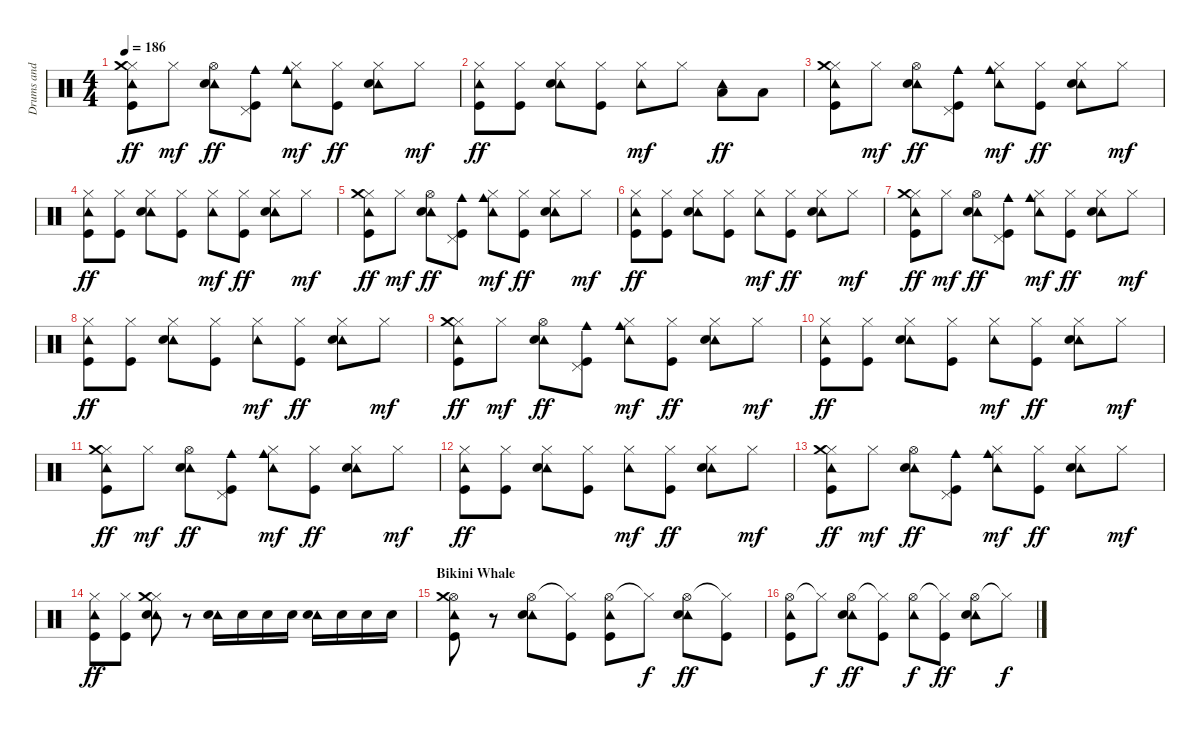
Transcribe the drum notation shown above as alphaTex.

\track ("Drums and Percs" "Drums and ") {instrument percussion}
\staff {score}
\articulation defaults
\ts (4 4)
\tempo 186
\clef neutral
\ks c
("Hi-Hat (closed)" "Tambourine (hit)" "Crash medium (hit)" "Kick (hit)").8{dy ff} "Hi-Hat (closed)".8{dy mf} ("Hi-Hat (open)" "Tambourine (hit)" "Electric Snare (hit)").8{dy ff} ("Pedal Hi-Hat (hit)" "Cowbell medium (hit)" "Kick (hit)").8 ("Hi-Hat (closed)" "Tambourine (hit)" "Cowbell medium (hit)").8{dy mf} ("Hi-Hat (closed)" "Kick (hit)").8{dy ff} ("Hi-Hat (closed)" "Tambourine (hit)" "Electric Snare (hit)").8 "Hi-Hat (closed)".8{dy mf} |
("Hi-Hat (closed)" "Tambourine (hit)" "Kick (hit)").8{dy ff} ("Hi-Hat (closed)" "Kick (hit)").8 ("Hi-Hat (closed)" "Tambourine (hit)" "Electric Snare (hit)").8 ("Hi-Hat (closed)" "Kick (hit)").8 ("Hi-Hat (closed)" "Tambourine (hit)").8{dy mf} "Hi-Hat (closed)".8 ("Tambourine (hit)" "Low Tom (hit)").8{dy ff} "Low Tom (hit)".8 |
("Hi-Hat (closed)" "Tambourine (hit)" "Crash medium (hit)" "Kick (hit)").8 "Hi-Hat (closed)".8{dy mf} ("Hi-Hat (open)" "Tambourine (hit)" "Electric Snare (hit)").8{dy ff} ("Pedal Hi-Hat (hit)" "Cowbell medium (hit)" "Kick (hit)").8 ("Hi-Hat (closed)" "Tambourine (hit)" "Cowbell medium (hit)").8{dy mf} ("Hi-Hat (closed)" "Kick (hit)").8{dy ff} ("Hi-Hat (closed)" "Tambourine (hit)" "Electric Snare (hit)").8 "Hi-Hat (closed)".8{dy mf} |
("Hi-Hat (closed)" "Tambourine (hit)" "Kick (hit)").8{dy ff} ("Hi-Hat (closed)" "Kick (hit)").8 ("Hi-Hat (closed)" "Tambourine (hit)" "Electric Snare (hit)").8 ("Hi-Hat (closed)" "Kick (hit)").8 ("Hi-Hat (closed)" "Tambourine (hit)").8{dy mf} ("Hi-Hat (closed)" "Kick (hit)").8{dy ff} ("Hi-Hat (closed)" "Tambourine (hit)" "Electric Snare (hit)").8 "Hi-Hat (closed)".8{dy mf} |
("Hi-Hat (closed)" "Tambourine (hit)" "Crash medium (hit)" "Kick (hit)").8{dy ff} "Hi-Hat (closed)".8{dy mf} ("Hi-Hat (open)" "Tambourine (hit)" "Electric Snare (hit)").8{dy ff} ("Pedal Hi-Hat (hit)" "Cowbell medium (hit)" "Kick (hit)").8 ("Hi-Hat (closed)" "Tambourine (hit)" "Cowbell medium (hit)").8{dy mf} ("Hi-Hat (closed)" "Kick (hit)").8{dy ff} ("Hi-Hat (closed)" "Tambourine (hit)" "Electric Snare (hit)").8 "Hi-Hat (closed)".8{dy mf} |
("Hi-Hat (closed)" "Tambourine (hit)" "Kick (hit)").8{dy ff} ("Hi-Hat (closed)" "Kick (hit)").8 ("Hi-Hat (closed)" "Tambourine (hit)" "Electric Snare (hit)").8 ("Hi-Hat (closed)" "Kick (hit)").8 ("Hi-Hat (closed)" "Tambourine (hit)").8{dy mf} ("Hi-Hat (closed)" "Kick (hit)").8{dy ff} ("Hi-Hat (closed)" "Tambourine (hit)" "Electric Snare (hit)").8 "Hi-Hat (closed)".8{dy mf} |
("Hi-Hat (closed)" "Tambourine (hit)" "Crash medium (hit)" "Kick (hit)").8{dy ff} "Hi-Hat (closed)".8{dy mf} ("Hi-Hat (open)" "Tambourine (hit)" "Electric Snare (hit)").8{dy ff} ("Pedal Hi-Hat (hit)" "Cowbell medium (hit)" "Kick (hit)").8 ("Hi-Hat (closed)" "Tambourine (hit)" "Cowbell medium (hit)").8{dy mf} ("Hi-Hat (closed)" "Kick (hit)").8{dy ff} ("Hi-Hat (closed)" "Tambourine (hit)" "Electric Snare (hit)").8 "Hi-Hat (closed)".8{dy mf} |
("Hi-Hat (closed)" "Tambourine (hit)" "Kick (hit)").8{dy ff} ("Hi-Hat (closed)" "Kick (hit)").8 ("Hi-Hat (closed)" "Tambourine (hit)" "Electric Snare (hit)").8 ("Hi-Hat (closed)" "Kick (hit)").8 ("Hi-Hat (closed)" "Tambourine (hit)").8{dy mf} ("Hi-Hat (closed)" "Kick (hit)").8{dy ff} ("Hi-Hat (closed)" "Tambourine (hit)" "Electric Snare (hit)").8 "Hi-Hat (closed)".8{dy mf} |
("Hi-Hat (closed)" "Tambourine (hit)" "Crash medium (hit)" "Kick (hit)").8{dy ff} "Hi-Hat (closed)".8{dy mf} ("Hi-Hat (open)" "Tambourine (hit)" "Electric Snare (hit)").8{dy ff} ("Pedal Hi-Hat (hit)" "Cowbell medium (hit)" "Kick (hit)").8 ("Hi-Hat (closed)" "Tambourine (hit)" "Cowbell medium (hit)").8{dy mf} ("Hi-Hat (closed)" "Kick (hit)").8{dy ff} ("Hi-Hat (closed)" "Tambourine (hit)" "Electric Snare (hit)").8 "Hi-Hat (closed)".8{dy mf} |
("Hi-Hat (closed)" "Tambourine (hit)" "Kick (hit)").8{dy ff} ("Hi-Hat (closed)" "Kick (hit)").8 ("Hi-Hat (closed)" "Tambourine (hit)" "Electric Snare (hit)").8 ("Hi-Hat (closed)" "Kick (hit)").8 ("Hi-Hat (closed)" "Tambourine (hit)").8{dy mf} ("Hi-Hat (closed)" "Kick (hit)").8{dy ff} ("Hi-Hat (closed)" "Tambourine (hit)" "Electric Snare (hit)").8 "Hi-Hat (closed)".8{dy mf} |
("Hi-Hat (closed)" "Tambourine (hit)" "Crash medium (hit)" "Kick (hit)").8{dy ff} "Hi-Hat (closed)".8{dy mf} ("Hi-Hat (open)" "Tambourine (hit)" "Electric Snare (hit)").8{dy ff} ("Pedal Hi-Hat (hit)" "Cowbell medium (hit)" "Kick (hit)").8 ("Hi-Hat (closed)" "Tambourine (hit)" "Cowbell medium (hit)").8{dy mf} ("Hi-Hat (closed)" "Kick (hit)").8{dy ff} ("Hi-Hat (closed)" "Tambourine (hit)" "Electric Snare (hit)").8 "Hi-Hat (closed)".8{dy mf} |
("Hi-Hat (closed)" "Tambourine (hit)" "Kick (hit)").8{dy ff} ("Hi-Hat (closed)" "Kick (hit)").8 ("Hi-Hat (closed)" "Tambourine (hit)" "Electric Snare (hit)").8 ("Hi-Hat (closed)" "Kick (hit)").8 ("Hi-Hat (closed)" "Tambourine (hit)").8{dy mf} ("Hi-Hat (closed)" "Kick (hit)").8{dy ff} ("Hi-Hat (closed)" "Tambourine (hit)" "Electric Snare (hit)").8 "Hi-Hat (closed)".8{dy mf} |
("Hi-Hat (closed)" "Tambourine (hit)" "Crash medium (hit)" "Kick (hit)").8{dy ff} "Hi-Hat (closed)".8{dy mf} ("Hi-Hat (open)" "Tambourine (hit)" "Electric Snare (hit)").8{dy ff} ("Pedal Hi-Hat (hit)" "Cowbell medium (hit)" "Kick (hit)").8 ("Hi-Hat (closed)" "Tambourine (hit)" "Cowbell medium (hit)").8{dy mf} ("Hi-Hat (closed)" "Kick (hit)").8{dy ff} ("Hi-Hat (closed)" "Tambourine (hit)" "Electric Snare (hit)").8 "Hi-Hat (closed)".8{dy mf} |
("Hi-Hat (closed)" "Tambourine (hit)" "Kick (hit)").8{dy ff} ("Hi-Hat (closed)" "Kick (hit)").8 ("Hi-Hat (closed)" "Tambourine (hit)" "Crash medium (hit)" "Electric Snare (hit)").8 r.8 ("Tambourine (hit)" "Electric Snare (hit)").16 "Electric Snare (hit)".16 "Electric Snare (hit)".16 "Electric Snare (hit)".16 ("Tambourine (hit)" "Electric Snare (hit)").16 "Electric Snare (hit)".16 "Electric Snare (hit)".16 "Electric Snare (hit)".16 |
\section ("" "Bikini Whale")
("Hi-Hat (open)" "Tambourine (hit)" "Crash medium (hit)" "Kick (hit)").8 r.8 ("Hi-Hat (open)" "Tambourine (hit)" "Electric Snare (hit)").8 ("Hi-Hat (closed)"{t} "Kick (hit)").8 ("Hi-Hat (open)" "Tambourine (hit)" "Kick (hit)").8 "Hi-Hat (closed)"{t}.8{dy f} ("Hi-Hat (open)" "Tambourine (hit)" "Electric Snare (hit)").8{dy ff} ("Hi-Hat (closed)"{t} "Kick (hit)").8 |
("Hi-Hat (open)" "Tambourine (hit)" "Kick (hit)").8 "Hi-Hat (closed)"{t}.8{dy f} ("Hi-Hat (open)" "Tambourine (hit)" "Electric Snare (hit)").8{dy ff} ("Hi-Hat (closed)"{t} "Kick (hit)").8 ("Hi-Hat (open)" "Tambourine (hit)").8{dy f} ("Hi-Hat (closed)"{t} "Kick (hit)").8{dy ff} ("Hi-Hat (open)" "Tambourine (hit)" "Electric Snare (hit)").8 "Hi-Hat (closed)"{t}.8{dy f}
